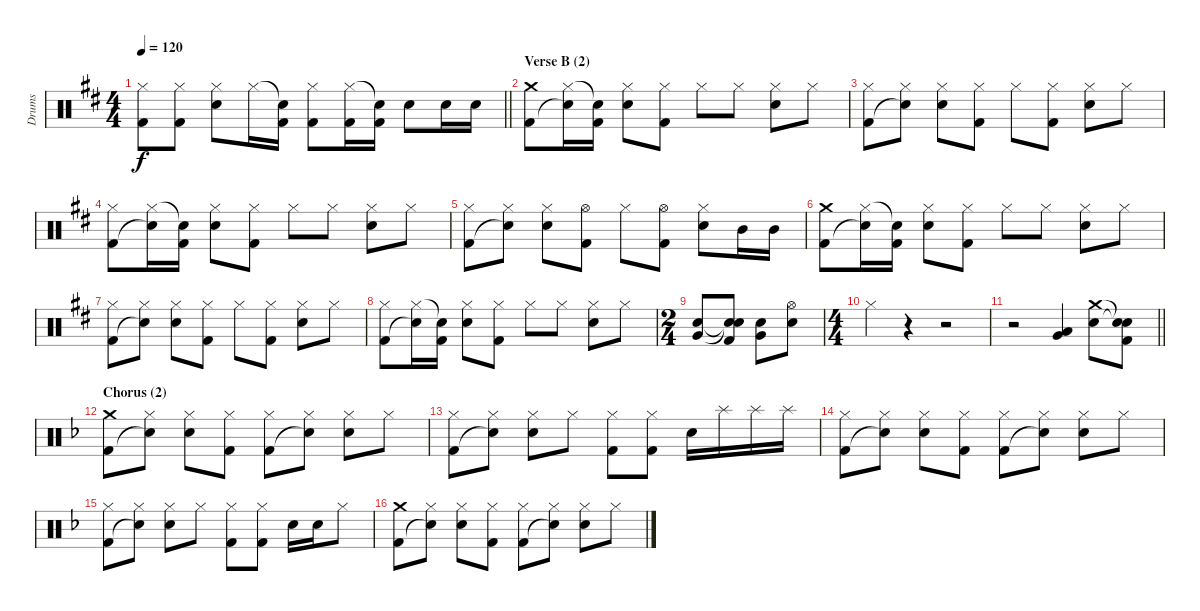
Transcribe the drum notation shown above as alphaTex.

\track ("Drums" "Drums") {instrument percussion}
\staff {score}
\articulation defaults
\ts (4 4)
\tempo 120
\clef neutral
\barLineRight lightlight
\ks d
("Hi-Hat (closed)" "Kick (hit) 2").8{dy f} ("Hi-Hat (closed)" "Kick (hit) 2").8 ("Hi-Hat (closed)" "Electric Snare (hit)").8 "Hi-Hat (closed)".16 ("Snare (hit)"{t} "Kick (hit) 2").16 ("Hi-Hat (closed)" "Kick (hit) 2").8 ("Hi-Hat (closed)" "Kick (hit) 2").16 ("Snare (hit)"{t} "Kick (hit) 2").16 "Electric Snare (hit)".8 "Electric Snare (hit)".16 "Electric Snare (hit)".16 |
\section ("" "Verse B (2)")
("Crash medium (hit)" "Kick (hit) 2").8 ("Hi-Hat (closed)" "Snare (hit)"{t}).16 ("Snare (hit)"{t} "Kick (hit) 2").16 ("Hi-Hat (closed)" "Electric Snare (hit)").8 ("Hi-Hat (closed)" "Kick (hit) 2").8 "Hi-Hat (closed)".8 "Hi-Hat (closed)".8 ("Hi-Hat (closed)" "Electric Snare (hit)").8 "Hi-Hat (closed)".8 |
("Hi-Hat (closed)" "Kick (hit) 2").8 ("Hi-Hat (closed)" "Snare (hit)"{t}).8 ("Hi-Hat (closed)" "Electric Snare (hit)").8 ("Hi-Hat (closed)" "Kick (hit) 2").8 "Hi-Hat (closed)".8 ("Hi-Hat (closed)" "Kick (hit) 2").8 ("Hi-Hat (closed)" "Electric Snare (hit)").8 "Hi-Hat (closed)".8 |
("Hi-Hat (closed)" "Kick (hit) 2").8 ("Hi-Hat (closed)" "Snare (hit)"{t}).16 ("Snare (hit)"{t} "Kick (hit) 2").16 ("Hi-Hat (closed)" "Electric Snare (hit)").8 ("Hi-Hat (closed)" "Kick (hit) 2").8 "Hi-Hat (closed)".8 "Hi-Hat (closed)".8 ("Hi-Hat (closed)" "Electric Snare (hit)").8 "Hi-Hat (closed)".8 |
("Hi-Hat (closed)" "Kick (hit) 2").8 ("Hi-Hat (closed)" "Snare (hit)"{t}).8 ("Hi-Hat (closed)" "Electric Snare (hit)").8 ("Hi-Hat (open)" "Kick (hit) 2").8 "Hi-Hat (closed)".8 ("Hi-Hat (open)" "Kick (hit) 2").8 ("Hi-Hat (closed)" "Electric Snare (hit)").8 "Mid Tom (hit)".16 "Mid Tom (hit)".16 |
("Crash medium (hit)" "Kick (hit) 2").8 ("Hi-Hat (closed)" "Snare (hit)"{t}).16 ("Snare (hit)"{t} "Kick (hit) 2").16 ("Hi-Hat (closed)" "Electric Snare (hit)").8 ("Hi-Hat (closed)" "Kick (hit) 2").8 "Hi-Hat (closed)".8 "Hi-Hat (closed)".8 ("Hi-Hat (closed)" "Electric Snare (hit)").8 "Hi-Hat (closed)".8 |
("Hi-Hat (closed)" "Kick (hit) 2").8 ("Hi-Hat (closed)" "Snare (hit)"{t}).8 ("Hi-Hat (closed)" "Electric Snare (hit)").8 ("Hi-Hat (closed)" "Kick (hit) 2").8 "Hi-Hat (closed)".8 ("Hi-Hat (closed)" "Kick (hit) 2").8 ("Hi-Hat (closed)" "Electric Snare (hit)").8 "Hi-Hat (closed)".8 |
("Hi-Hat (closed)" "Kick (hit) 2").8 ("Hi-Hat (closed)" "Snare (hit)"{t}).16 ("Snare (hit)"{t} "Kick (hit) 2").16 ("Hi-Hat (closed)" "Electric Snare (hit)").8 ("Hi-Hat (closed)" "Kick (hit) 2").8 "Hi-Hat (closed)".8 "Hi-Hat (closed)".8 ("Hi-Hat (closed)" "Electric Snare (hit)").8 "Hi-Hat (closed)".8 |
\ts (2 4)
("Electric Snare (hit)" "Very Low Tom (hit)").8 ("Snare (hit)"{t} "Snare (hit)"{t} "Kick (hit) 2").8 ("Electric Snare (hit)" "Very Low Tom (hit)").8 ("Hi-Hat (open)" "Electric Snare (hit)").8 |
\ts (4 4)
"Hi-Hat (closed)".4 r.4 r.2 |
\barLineRight lightlight
r.2 ("Very Low Tom (hit)" "Low Floor Tom (hit)").4 ("Crash medium (hit)" "Electric Snare (hit)").8 ("Snare (hit)"{t} "Snare (hit)"{t} "Kick (hit) 2").8 |
\section ("" "Chorus (2)")
\ks dminor
("Crash medium (hit)" "Kick (hit) 2").8 ("Hi-Hat (closed)" "Snare (hit)"{t}).8 ("Hi-Hat (closed)" "Electric Snare (hit)").8 ("Hi-Hat (closed)" "Kick (hit) 2").8 ("Hi-Hat (closed)" "Kick (hit) 2").8 ("Hi-Hat (closed)" "Snare (hit)"{t}).8 ("Hi-Hat (closed)" "Electric Snare (hit)").8 "Hi-Hat (closed)".8 |
("Hi-Hat (closed)" "Kick (hit) 2").8 ("Hi-Hat (closed)" "Snare (hit)"{t}).8 ("Hi-Hat (closed)" "Electric Snare (hit)").8 "Hi-Hat (closed)".8 ("Hi-Hat (closed)" "Kick (hit) 2").8 ("Hi-Hat (closed)" "Kick (hit) 2").8 "Electric Snare (hit)".16 "Splash (hit)".16 "Splash (hit)".16 "Splash (hit)".16 |
("Hi-Hat (closed)" "Kick (hit) 2").8 ("Hi-Hat (closed)" "Snare (hit)"{t}).8 ("Hi-Hat (closed)" "Electric Snare (hit)").8 ("Hi-Hat (closed)" "Kick (hit) 2").8 ("Hi-Hat (closed)" "Kick (hit) 2").8 ("Hi-Hat (closed)" "Snare (hit)"{t}).8 ("Hi-Hat (closed)" "Electric Snare (hit)").8 "Hi-Hat (closed)".8 |
("Hi-Hat (closed)" "Kick (hit) 2").8 ("Hi-Hat (closed)" "Snare (hit)"{t}).8 ("Hi-Hat (closed)" "Electric Snare (hit)").8 "Hi-Hat (closed)".8 ("Hi-Hat (closed)" "Kick (hit) 2").8 ("Hi-Hat (closed)" "Kick (hit) 2").8 "Electric Snare (hit)".16 "Electric Snare (hit)".16 "Hi-Hat (closed)".8 |
("Crash medium (hit)" "Kick (hit) 2").8 ("Hi-Hat (closed)" "Snare (hit)"{t}).8 ("Hi-Hat (closed)" "Electric Snare (hit)").8 ("Hi-Hat (closed)" "Kick (hit) 2").8 ("Hi-Hat (closed)" "Kick (hit) 2").8 ("Hi-Hat (closed)" "Snare (hit)"{t}).8 ("Hi-Hat (closed)" "Electric Snare (hit)").8 "Hi-Hat (closed)".8
